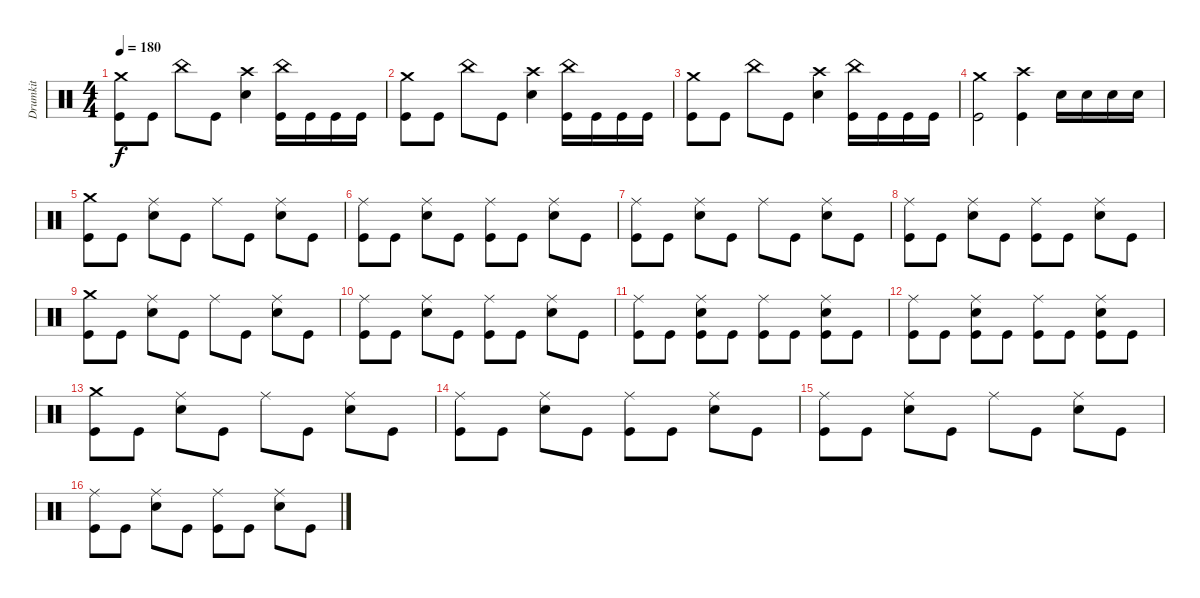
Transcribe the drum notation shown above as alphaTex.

\track ("Drumkit" "Drumkit") {instrument percussion}
\staff {score}
\articulation defaults
\ts (4 4)
\tempo 180
\clef neutral
\ks c
("Crash medium (hit)" "Kick (hit)").8{dy f} "Kick (hit)".8 "China (hit)".8 "Kick (hit)".8 ("Crash high (hit)" "Snare (hit) 2").4 ("China (hit)" "Kick (hit)").16 "Kick (hit)".16 "Kick (hit)".16 "Kick (hit)".16 |
("Crash medium (hit)" "Kick (hit)").8 "Kick (hit)".8 "China (hit)".8 "Kick (hit)".8 ("Crash high (hit)" "Snare (hit) 2").4 ("China (hit)" "Kick (hit)").16 "Kick (hit)".16 "Kick (hit)".16 "Kick (hit)".16 |
("Crash medium (hit)" "Kick (hit)").8 "Kick (hit)".8 "China (hit)".8 "Kick (hit)".8 ("Crash high (hit)" "Snare (hit) 2").4 ("China (hit)" "Kick (hit)").16 "Kick (hit)".16 "Kick (hit)".16 "Kick (hit)".16 |
("Crash medium (hit)" "Kick (hit)").2 ("Crash high (hit)" "Kick (hit)").4 "Snare (hit) 2".16 "Snare (hit) 2".16 "Snare (hit) 2".16 "Snare (hit) 2".16 |
("Crash medium (hit)" "Kick (hit)").8 "Kick (hit)".8 ("Ride (middle)" "Snare (hit) 2").8 "Kick (hit)".8 "Ride (middle)".8 "Kick (hit)".8 ("Ride (middle)" "Snare (hit) 2").8 "Kick (hit)".8 |
("Ride (middle)" "Kick (hit)").8 "Kick (hit)".8 ("Ride (middle)" "Snare (hit) 2").8 "Kick (hit)".8 ("Ride (middle)" "Kick (hit)").8 "Kick (hit)".8 ("Ride (middle)" "Snare (hit) 2").8 "Kick (hit)".8 |
("Ride (middle)" "Kick (hit)").8 "Kick (hit)".8 ("Ride (middle)" "Snare (hit) 2").8 "Kick (hit)".8 "Ride (middle)".8 "Kick (hit)".8 ("Snare (hit) 2" "Ride (middle)").8 "Kick (hit)".8 |
("Ride (middle)" "Kick (hit)").8 "Kick (hit)".8 ("Ride (middle)" "Snare (hit) 2").8 "Kick (hit)".8 ("Ride (middle)" "Kick (hit)").8 "Kick (hit)".8 ("Ride (middle)" "Snare (hit) 2").8 "Kick (hit)".8 |
("Crash medium (hit)" "Kick (hit)").8 "Kick (hit)".8 ("Ride (middle)" "Snare (hit) 2").8 "Kick (hit)".8 "Ride (middle)".8 "Kick (hit)".8 ("Ride (middle)" "Snare (hit) 2").8 "Kick (hit)".8 |
("Ride (middle)" "Kick (hit)").8 "Kick (hit)".8 ("Ride (middle)" "Snare (hit) 2").8 "Kick (hit)".8 ("Ride (middle)" "Kick (hit)").8 "Kick (hit)".8 ("Ride (middle)" "Snare (hit) 2").8 "Kick (hit)".8 |
("Ride (middle)" "Kick (hit)").8 "Kick (hit)".8 ("Ride (middle)" "Snare (hit) 2" "Kick (hit)").8 "Kick (hit)".8 ("Ride (middle)" "Kick (hit)").8 "Kick (hit)".8 ("Ride (middle)" "Snare (hit) 2" "Kick (hit)").8 "Kick (hit)".8 |
("Ride (middle)" "Kick (hit)").8 "Kick (hit)".8 ("Ride (middle)" "Snare (hit) 2" "Kick (hit)").8 "Kick (hit)".8 ("Ride (middle)" "Kick (hit)").8 "Kick (hit)".8 ("Ride (middle)" "Snare (hit) 2" "Kick (hit)").8 "Kick (hit)".8 |
("Crash medium (hit)" "Kick (hit)").8 "Kick (hit)".8 ("Ride (middle)" "Snare (hit) 2").8 "Kick (hit)".8 "Ride (middle)".8 "Kick (hit)".8 ("Ride (middle)" "Snare (hit) 2").8 "Kick (hit)".8 |
("Ride (middle)" "Kick (hit)").8 "Kick (hit)".8 ("Ride (middle)" "Snare (hit) 2").8 "Kick (hit)".8 ("Ride (middle)" "Kick (hit)").8 "Kick (hit)".8 ("Ride (middle)" "Snare (hit) 2").8 "Kick (hit)".8 |
("Ride (middle)" "Kick (hit)").8 "Kick (hit)".8 ("Ride (middle)" "Snare (hit) 2").8 "Kick (hit)".8 "Ride (middle)".8 "Kick (hit)".8 ("Ride (middle)" "Snare (hit) 2").8 "Kick (hit)".8 |
("Ride (middle)" "Kick (hit)").8 "Kick (hit)".8 ("Ride (middle)" "Snare (hit) 2").8 "Kick (hit)".8 ("Ride (middle)" "Kick (hit)").8 "Kick (hit)".8 ("Ride (middle)" "Snare (hit) 2").8 "Kick (hit)".8
